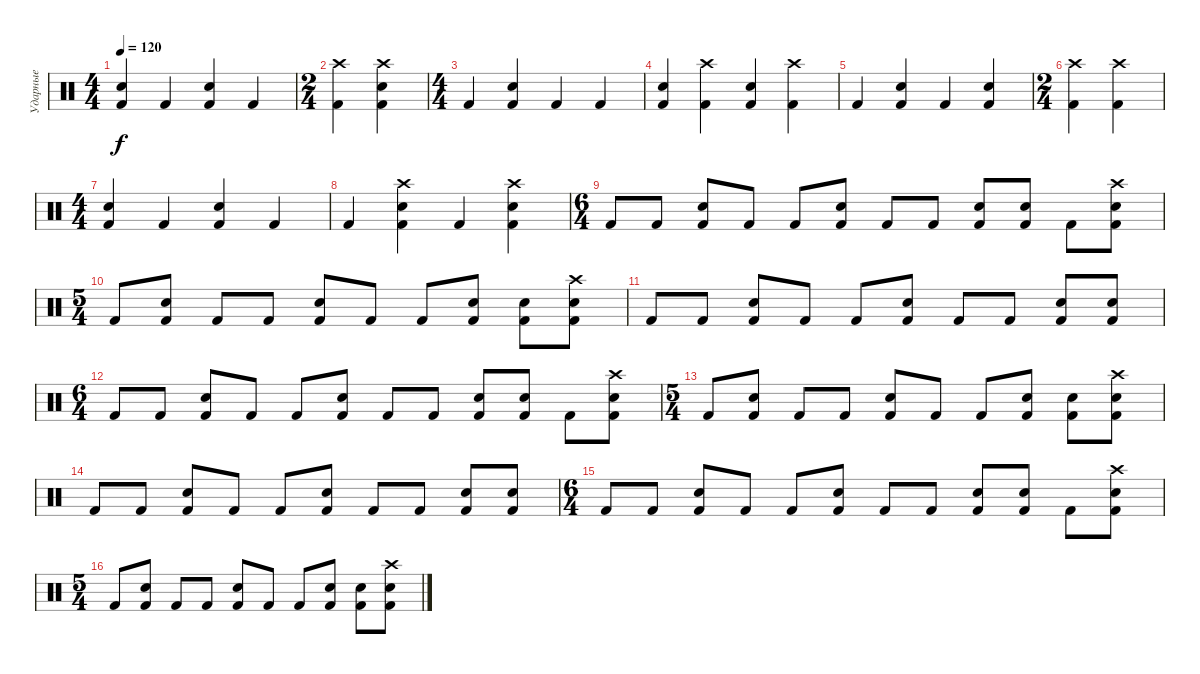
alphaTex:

\track ("Ударные" "Ударные") {instrument percussion}
\staff {score}
\articulation defaults
\ts (4 4)
\tempo 120
\clef neutral
\ks c
("Kick (hit) 2" "Electric Snare (hit)").4{dy f} "Kick (hit) 2".4 ("Kick (hit) 2" "Electric Snare (hit)").4 "Kick (hit) 2".4 |
\ts (2 4)
("Kick (hit) 2" "Crash high (hit)").4 ("Kick (hit) 2" "Crash high (hit)" "Electric Snare (hit)").4 |
\ts (4 4)
"Kick (hit) 2".4 ("Kick (hit) 2" "Electric Snare (hit)").4 "Kick (hit) 2".4 "Kick (hit) 2".4 |
("Kick (hit) 2" "Electric Snare (hit)").4 ("Kick (hit) 2" "Crash high (hit)").4 ("Kick (hit) 2" "Electric Snare (hit)").4 ("Kick (hit) 2" "Crash high (hit)").4 |
"Kick (hit) 2".4 ("Kick (hit) 2" "Electric Snare (hit)").4 "Kick (hit) 2".4 ("Kick (hit) 2" "Electric Snare (hit)").4 |
\ts (2 4)
("Kick (hit) 2" "Crash high (hit)").4 ("Kick (hit) 2" "Crash high (hit)").4 |
\ts (4 4)
("Kick (hit) 2" "Electric Snare (hit)").4 "Kick (hit) 2".4 ("Kick (hit) 2" "Electric Snare (hit)").4 "Kick (hit) 2".4 |
"Kick (hit) 2".4 ("Kick (hit) 2" "Crash high (hit)" "Electric Snare (hit)").4 "Kick (hit) 2".4 ("Kick (hit) 2" "Crash high (hit)" "Electric Snare (hit)").4 |
\ts (6 4)
"Kick (hit) 2".8 "Kick (hit) 2".8 ("Kick (hit) 2" "Electric Snare (hit)").8 "Kick (hit) 2".8 "Kick (hit) 2".8 ("Kick (hit) 2" "Electric Snare (hit)").8 "Kick (hit) 2".8 "Kick (hit) 2".8 ("Kick (hit) 2" "Electric Snare (hit)").8 ("Kick (hit) 2" "Electric Snare (hit)").8 "Kick (hit) 2".8 ("Kick (hit) 2" "Electric Snare (hit)" "Crash high (hit)").8 |
\ts (5 4)
"Kick (hit) 2".8 ("Kick (hit) 2" "Electric Snare (hit)").8 "Kick (hit) 2".8 "Kick (hit) 2".8 ("Kick (hit) 2" "Electric Snare (hit)").8 "Kick (hit) 2".8 "Kick (hit) 2".8 ("Kick (hit) 2" "Electric Snare (hit)").8 ("Kick (hit) 2" "Electric Snare (hit)").8 ("Kick (hit) 2" "Electric Snare (hit)" "Crash high (hit)").8 |
"Kick (hit) 2".8 "Kick (hit) 2".8 ("Kick (hit) 2" "Electric Snare (hit)").8 "Kick (hit) 2".8 "Kick (hit) 2".8 ("Kick (hit) 2" "Electric Snare (hit)").8 "Kick (hit) 2".8 "Kick (hit) 2".8 ("Kick (hit) 2" "Electric Snare (hit)").8 ("Kick (hit) 2" "Electric Snare (hit)").8 |
\ts (6 4)
"Kick (hit) 2".8 "Kick (hit) 2".8 ("Kick (hit) 2" "Electric Snare (hit)").8 "Kick (hit) 2".8 "Kick (hit) 2".8 ("Kick (hit) 2" "Electric Snare (hit)").8 "Kick (hit) 2".8 "Kick (hit) 2".8 ("Kick (hit) 2" "Electric Snare (hit)").8 ("Kick (hit) 2" "Electric Snare (hit)").8 "Kick (hit) 2".8 ("Kick (hit) 2" "Electric Snare (hit)" "Crash high (hit)").8 |
\ts (5 4)
"Kick (hit) 2".8 ("Kick (hit) 2" "Electric Snare (hit)").8 "Kick (hit) 2".8 "Kick (hit) 2".8 ("Kick (hit) 2" "Electric Snare (hit)").8 "Kick (hit) 2".8 "Kick (hit) 2".8 ("Kick (hit) 2" "Electric Snare (hit)").8 ("Kick (hit) 2" "Electric Snare (hit)").8 ("Kick (hit) 2" "Electric Snare (hit)" "Crash high (hit)").8 |
"Kick (hit) 2".8 "Kick (hit) 2".8 ("Kick (hit) 2" "Electric Snare (hit)").8 "Kick (hit) 2".8 "Kick (hit) 2".8 ("Kick (hit) 2" "Electric Snare (hit)").8 "Kick (hit) 2".8 "Kick (hit) 2".8 ("Kick (hit) 2" "Electric Snare (hit)").8 ("Kick (hit) 2" "Electric Snare (hit)").8 |
\ts (6 4)
"Kick (hit) 2".8 "Kick (hit) 2".8 ("Kick (hit) 2" "Electric Snare (hit)").8 "Kick (hit) 2".8 "Kick (hit) 2".8 ("Kick (hit) 2" "Electric Snare (hit)").8 "Kick (hit) 2".8 "Kick (hit) 2".8 ("Kick (hit) 2" "Electric Snare (hit)").8 ("Kick (hit) 2" "Electric Snare (hit)").8 "Kick (hit) 2".8 ("Kick (hit) 2" "Electric Snare (hit)" "Crash high (hit)").8 |
\ts (5 4)
"Kick (hit) 2".8 ("Kick (hit) 2" "Electric Snare (hit)").8 "Kick (hit) 2".8 "Kick (hit) 2".8 ("Kick (hit) 2" "Electric Snare (hit)").8 "Kick (hit) 2".8 "Kick (hit) 2".8 ("Kick (hit) 2" "Electric Snare (hit)").8 ("Kick (hit) 2" "Electric Snare (hit)").8 ("Kick (hit) 2" "Electric Snare (hit)" "Crash high (hit)").8
